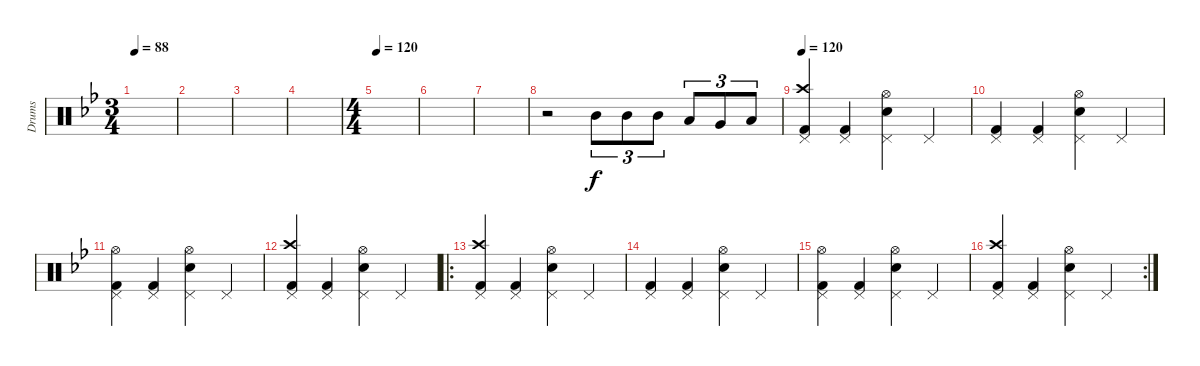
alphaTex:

\track ("Drums" "Drums") {instrument percussion}
\staff {score}
\articulation defaults
\ts (3 4)
\tempo 88
\clef neutral
\ks bb
|
|
|
|
\ts (4 4)
\tempo 120
|
|
|
r.2 "Mid Tom (hit)".8{tu (3 2)} "Mid Tom (hit)".8{tu (3 2)} "Mid Tom (hit)".8{tu (3 2)} "Low Tom (hit)".8{tu (3 2)} "Very Low Tom (hit)".8{tu (3 2)} "Low Floor Tom (hit)".8{tu (3 2)} |
\tempo 120
("Pedal Hi-Hat (hit)" "Crash high (hit)" "Kick (hit) 2").4 ("Pedal Hi-Hat (hit)" "Kick (hit) 2").4 ("Pedal Hi-Hat (hit)" "Snare (hit) 2" "Hi-Hat (open)").4 "Pedal Hi-Hat (hit)".4 |
("Pedal Hi-Hat (hit)" "Kick (hit) 2").4 ("Pedal Hi-Hat (hit)" "Kick (hit) 2").4 ("Pedal Hi-Hat (hit)" "Snare (hit) 2" "Hi-Hat (open)").4 "Pedal Hi-Hat (hit)".4 |
("Pedal Hi-Hat (hit)" "Hi-Hat (open)" "Kick (hit) 2").4 ("Pedal Hi-Hat (hit)" "Kick (hit) 2").4 ("Pedal Hi-Hat (hit)" "Snare (hit) 2" "Hi-Hat (open)").4 "Pedal Hi-Hat (hit)".4 |
("Pedal Hi-Hat (hit)" "Crash high (hit)" "Kick (hit) 2").4 ("Pedal Hi-Hat (hit)" "Kick (hit) 2").4 ("Pedal Hi-Hat (hit)" "Snare (hit) 2" "Hi-Hat (open)").4 "Pedal Hi-Hat (hit)".4 |
\ro
("Pedal Hi-Hat (hit)" "Crash high (hit)" "Kick (hit) 2").4 ("Pedal Hi-Hat (hit)" "Kick (hit) 2").4 ("Pedal Hi-Hat (hit)" "Snare (hit) 2" "Hi-Hat (open)").4 "Pedal Hi-Hat (hit)".4 |
("Pedal Hi-Hat (hit)" "Kick (hit) 2").4 ("Pedal Hi-Hat (hit)" "Kick (hit) 2").4 ("Pedal Hi-Hat (hit)" "Snare (hit) 2" "Hi-Hat (open)").4 "Pedal Hi-Hat (hit)".4 |
("Pedal Hi-Hat (hit)" "Hi-Hat (open)" "Kick (hit) 2").4 ("Pedal Hi-Hat (hit)" "Kick (hit) 2").4 ("Pedal Hi-Hat (hit)" "Snare (hit) 2" "Hi-Hat (open)").4 "Pedal Hi-Hat (hit)".4 |
\rc 2
("Pedal Hi-Hat (hit)" "Crash high (hit)" "Kick (hit) 2").4 ("Pedal Hi-Hat (hit)" "Kick (hit) 2").4 ("Pedal Hi-Hat (hit)" "Snare (hit) 2" "Hi-Hat (open)").4 "Pedal Hi-Hat (hit)".4
